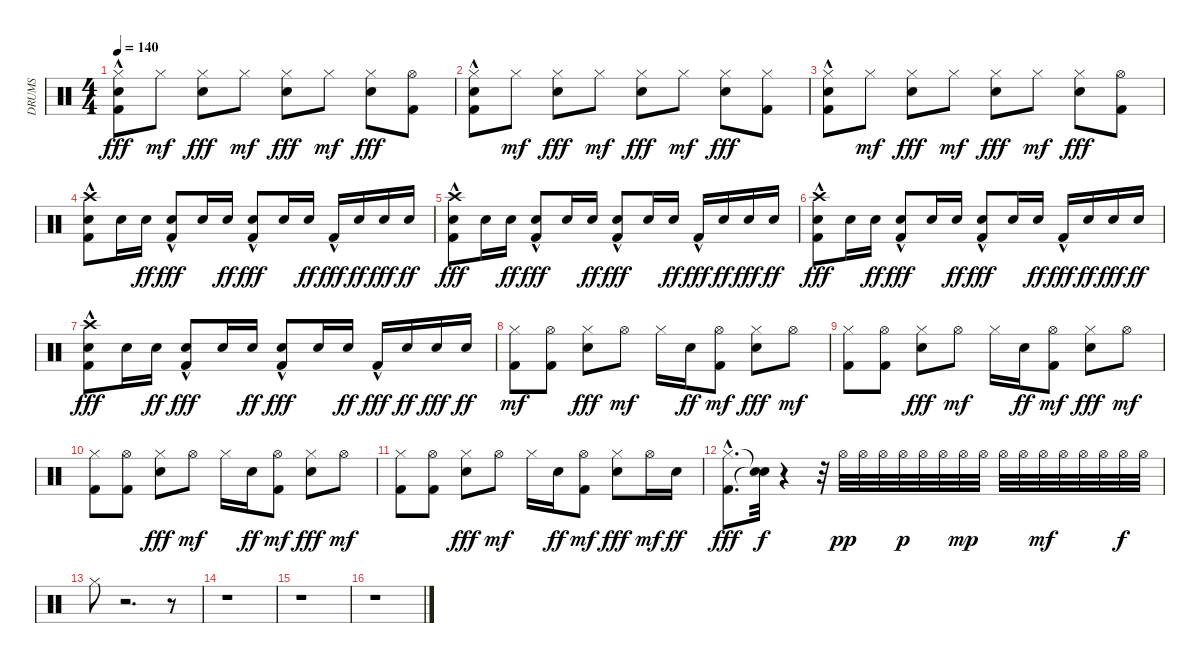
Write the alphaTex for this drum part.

\track ("DRUMS" "DRUMS") {instrument percussion}
\staff {score}
\articulation defaults
\ts (4 4)
\tempo 140
\clef neutral
\ks c
("Hi-Hat (closed)" "Electric Snare (hit)" "Kick (hit) 2"{hac}).8{dy fff} "Hi-Hat (closed)".8{dy mf} ("Hi-Hat (closed)" "Electric Snare (hit)").8{dy fff} "Hi-Hat (closed)".8{dy mf} ("Hi-Hat (closed)" "Electric Snare (hit)").8{dy fff} "Hi-Hat (closed)".8{dy mf} ("Hi-Hat (closed)" "Electric Snare (hit)").8{dy fff} ("Hi-Hat (open)" "Kick (hit) 2").8 |
("Hi-Hat (closed)" "Electric Snare (hit)" "Kick (hit) 2"{hac}).8 "Hi-Hat (closed)".8{dy mf} ("Hi-Hat (closed)" "Electric Snare (hit)").8{dy fff} "Hi-Hat (closed)".8{dy mf} ("Hi-Hat (closed)" "Electric Snare (hit)").8{dy fff} "Hi-Hat (closed)".8{dy mf} ("Hi-Hat (closed)" "Electric Snare (hit)").8{dy fff} ("Hi-Hat (closed)" "Kick (hit) 2").8 |
("Hi-Hat (closed)" "Electric Snare (hit)" "Kick (hit) 2"{hac}).8 "Hi-Hat (closed)".8{dy mf} ("Hi-Hat (closed)" "Electric Snare (hit)").8{dy fff} "Hi-Hat (closed)".8{dy mf} ("Hi-Hat (closed)" "Electric Snare (hit)").8{dy fff} "Hi-Hat (closed)".8{dy mf} ("Hi-Hat (closed)" "Electric Snare (hit)").8{dy fff} ("Hi-Hat (open)" "Kick (hit) 2").8 |
("Kick (hit) 2"{hac} "Electric Snare (hit)" "Crash high (hit)").8 "Electric Snare (hit)".16 "Electric Snare (hit)".16{dy ff} ("Kick (hit) 2"{hac} "Electric Snare (hit)").8{dy fff} "Electric Snare (hit)".16 "Electric Snare (hit)".16{dy ff} ("Kick (hit) 2"{hac} "Electric Snare (hit)").8{dy fff} "Electric Snare (hit)".16 "Electric Snare (hit)".16{dy ff} "Kick (hit) 2"{hac}.16{dy fff} "Electric Snare (hit)".16{dy ff} "Electric Snare (hit)".16{dy fff} "Electric Snare (hit)".16{dy ff} |
("Kick (hit) 2"{hac} "Electric Snare (hit)" "Crash high (hit)").8{dy fff} "Electric Snare (hit)".16 "Electric Snare (hit)".16{dy ff} ("Kick (hit) 2"{hac} "Electric Snare (hit)").8{dy fff} "Electric Snare (hit)".16 "Electric Snare (hit)".16{dy ff} ("Kick (hit) 2"{hac} "Electric Snare (hit)").8{dy fff} "Electric Snare (hit)".16 "Electric Snare (hit)".16{dy ff} "Kick (hit) 2"{hac}.16{dy fff} "Electric Snare (hit)".16{dy ff} "Electric Snare (hit)".16{dy fff} "Electric Snare (hit)".16{dy ff} |
("Kick (hit) 2"{hac} "Electric Snare (hit)" "Crash high (hit)").8{dy fff} "Electric Snare (hit)".16 "Electric Snare (hit)".16{dy ff} ("Kick (hit) 2"{hac} "Electric Snare (hit)").8{dy fff} "Electric Snare (hit)".16 "Electric Snare (hit)".16{dy ff} ("Kick (hit) 2"{hac} "Electric Snare (hit)").8{dy fff} "Electric Snare (hit)".16 "Electric Snare (hit)".16{dy ff} "Kick (hit) 2"{hac}.16{dy fff} "Electric Snare (hit)".16{dy ff} "Electric Snare (hit)".16{dy fff} "Electric Snare (hit)".16{dy ff} |
("Kick (hit) 2"{hac} "Electric Snare (hit)" "Crash high (hit)").8{dy fff} "Electric Snare (hit)".16 "Electric Snare (hit)".16{dy ff} ("Kick (hit) 2"{hac} "Electric Snare (hit)").8{dy fff} "Electric Snare (hit)".16 "Electric Snare (hit)".16{dy ff} ("Kick (hit) 2"{hac} "Electric Snare (hit)").8{dy fff} "Electric Snare (hit)".16 "Electric Snare (hit)".16{dy ff} "Kick (hit) 2"{hac}.16{dy fff} "Electric Snare (hit)".16{dy ff} "Electric Snare (hit)".16{dy fff} "Electric Snare (hit)".16{dy ff} |
("Kick (hit) 2" "Hi-Hat (closed)").8{dy mf} ("Kick (hit) 2" "Hi-Hat (open)").8 ("Electric Snare (hit)" "Hi-Hat (closed)").8{dy fff} "Hi-Hat (open)".8{dy mf} "Hi-Hat (closed)".16 "Electric Snare (hit)".16{dy ff} ("Kick (hit) 2" "Hi-Hat (open)").8{dy mf} ("Electric Snare (hit)" "Hi-Hat (closed)").8{dy fff} "Hi-Hat (open)".8{dy mf} |
("Kick (hit) 2" "Hi-Hat (closed)").8 ("Kick (hit) 2" "Hi-Hat (open)").8 ("Electric Snare (hit)" "Hi-Hat (closed)").8{dy fff} "Hi-Hat (open)".8{dy mf} "Hi-Hat (closed)".16 "Electric Snare (hit)".16{dy ff} ("Kick (hit) 2" "Hi-Hat (open)").8{dy mf} ("Electric Snare (hit)" "Hi-Hat (closed)").8{dy fff} "Hi-Hat (open)".8{dy mf} |
("Kick (hit) 2" "Hi-Hat (closed)").8 ("Kick (hit) 2" "Hi-Hat (open)").8 ("Electric Snare (hit)" "Hi-Hat (closed)").8{dy fff} "Hi-Hat (open)".8{dy mf} "Hi-Hat (closed)".16 "Electric Snare (hit)".16{dy ff} ("Kick (hit) 2" "Hi-Hat (open)").8{dy mf} ("Electric Snare (hit)" "Hi-Hat (closed)").8{dy fff} "Hi-Hat (open)".8{dy mf} |
("Kick (hit) 2" "Hi-Hat (closed)").8 ("Kick (hit) 2" "Hi-Hat (open)").8 ("Electric Snare (hit)" "Hi-Hat (closed)").8{dy fff} "Hi-Hat (open)".8{dy mf} "Hi-Hat (closed)".16 "Electric Snare (hit)".16{dy ff} ("Kick (hit) 2" "Hi-Hat (open)").8{dy mf} ("Electric Snare (hit)" "Hi-Hat (closed)").8{dy fff} "Hi-Hat (open)".16{dy mf} "Electric Snare (hit)".16{dy ff} |
("Kick (hit) 2"{hac} "Hi-Hat (closed)"{hac}).8{d dy fff} ("Snare (hit)"{t} "Snare (hit)"{t}).32{dy f} r.4 r.32 "Hi-Hat (open)".32{dy pp} "Hi-Hat (open)".32 "Hi-Hat (open)".32 "Hi-Hat (open)".32{dy p} "Hi-Hat (open)".32 "Hi-Hat (open)".32 "Hi-Hat (open)".32{dy mp} "Hi-Hat (open)".32 "Hi-Hat (open)".32 "Hi-Hat (open)".32 "Hi-Hat (open)".32{dy mf} "Hi-Hat (open)".32 "Hi-Hat (open)".32 "Hi-Hat (open)".32 "Hi-Hat (open)".32{dy f} "Hi-Hat (open)".32 |
"Hi-Hat (closed)".8 r.2{d} r.8 |
r.1 |
r.1 |
r.1
